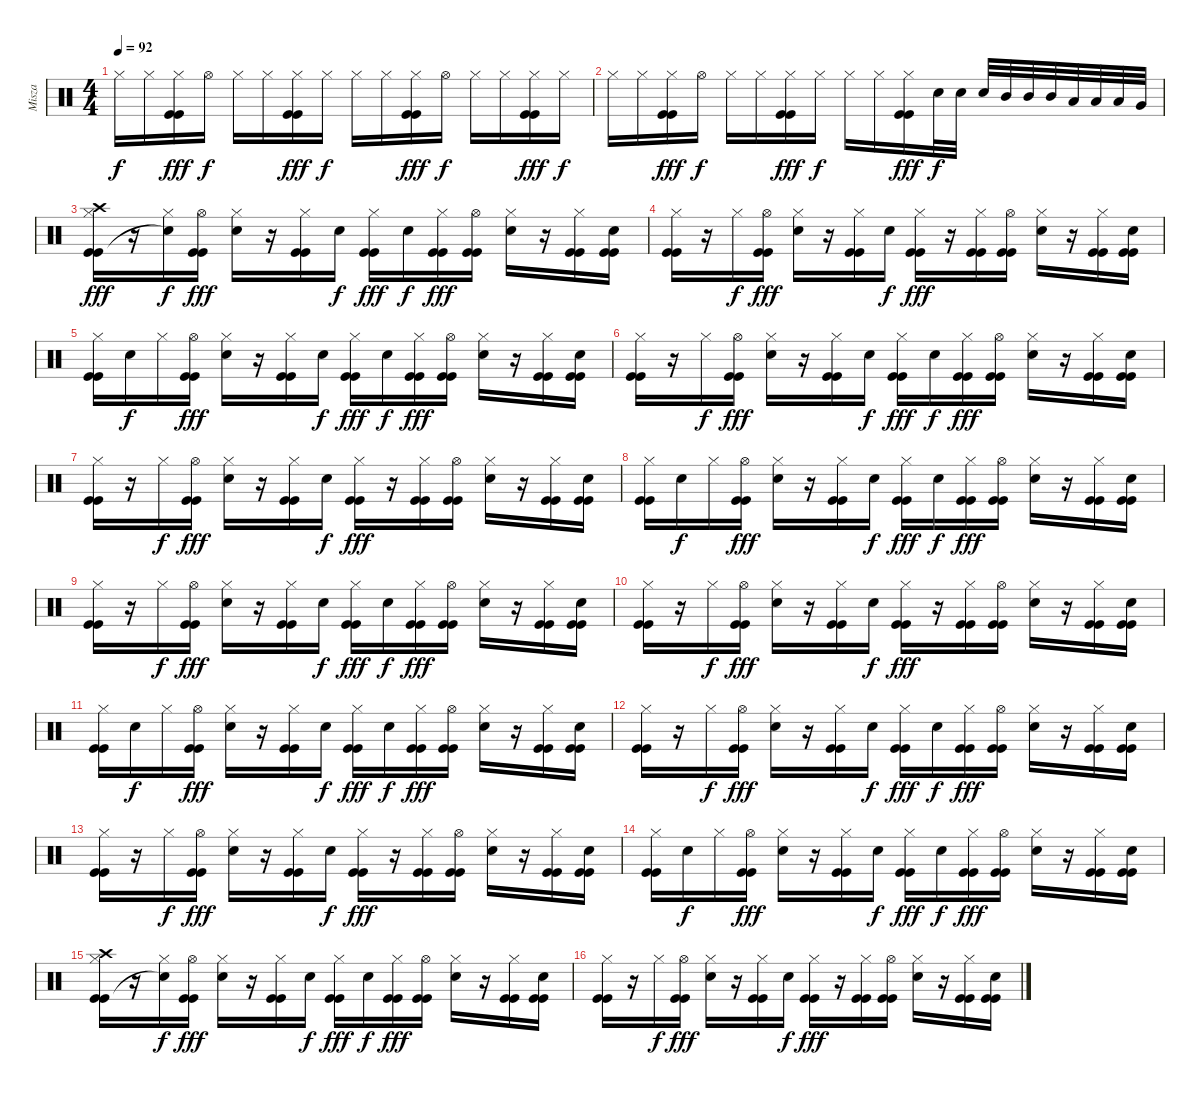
\track ("Misza" "Misza") {instrument percussion}
\staff {score}
\articulation defaults
\ts (4 4)
\tempo 92
\clef neutral
\ks c "Hi-Hat (closed)".16{dy f} "Hi-Hat (closed)".16
("Hi-Hat (closed)" "Kick (hit)" "Kick (hit)").16{dy fff} "Hi-Hat (open)".16{dy f} "Hi-Hat (closed)".16 "Hi-Hat (closed)".16 ("Hi-Hat (closed)" "Kick (hit)" "Kick (hit)").16{dy fff} "Hi-Hat (closed)".16{dy f} "Hi-Hat (closed)".16 "Hi-Hat (closed)".16 ("Hi-Hat (closed)" "Kick (hit)" "Kick (hit)").16{dy fff} "Hi-Hat (open)".16{dy f} "Hi-Hat (closed)".16 "Hi-Hat (closed)".16 ("Hi-Hat (closed)" "Kick (hit)" "Kick (hit)").16{dy fff} "Hi-Hat (closed)".16{dy f} |
"Hi-Hat (closed)".16 "Hi-Hat (closed)".16 ("Hi-Hat (closed)" "Kick (hit)" "Kick (hit)").16{dy fff} "Hi-Hat (open)".16{dy f} "Hi-Hat (closed)".16 "Hi-Hat (closed)".16 ("Hi-Hat (closed)" "Kick (hit)" "Kick (hit)").16{dy fff} "Hi-Hat (closed)".16{dy f} "Hi-Hat (closed)".16 "Hi-Hat (closed)".16 ("Hi-Hat (closed)" "Kick (hit)" "Kick (hit)").16{dy fff} "Snare (hit) 2".32{dy f} "Snare (hit) 2".32 "Snare (hit) 2".32 "Mid Tom (hit)".32 "Mid Tom (hit)".32 "Mid Tom (hit)".32 "Low Tom (hit)".32 "Low Tom (hit)".32 "Low Tom (hit)".32 "Very Low Tom (hit)".32 |
("Hi-Hat (closed)" "Kick (hit)" "Kick (hit)" "Crash high (hit)").16{dy fff} r.16 ("Hi-Hat (closed)" "Snare (hit)"{t}).16{dy f} ("Hi-Hat (open)" "Kick (hit)" "Kick (hit)").16{dy fff} ("Hi-Hat (closed)" "Snare (hit) 2").16 r.16 ("Hi-Hat (closed)" "Kick (hit)" "Kick (hit)").16 "Snare (hit) 2".16{dy f} ("Hi-Hat (closed)" "Kick (hit)" "Kick (hit)").16{dy fff} "Snare (hit) 2".16{dy f} ("Hi-Hat (closed)" "Kick (hit)" "Kick (hit)").16{dy fff} ("Hi-Hat (open)" "Kick (hit)" "Kick (hit)").16 ("Hi-Hat (closed)" "Snare (hit) 2").16 r.16 ("Hi-Hat (closed)" "Kick (hit)" "Kick (hit)").16 ("Snare (hit) 2" "Kick (hit)" "Kick (hit)").16 |
("Hi-Hat (closed)" "Kick (hit)" "Kick (hit)").16 r.16 "Hi-Hat (closed)".16{dy f} ("Hi-Hat (open)" "Kick (hit)" "Kick (hit)").16{dy fff} ("Hi-Hat (closed)" "Snare (hit) 2").16 r.16 ("Hi-Hat (closed)" "Kick (hit)" "Kick (hit)").16 "Snare (hit) 2".16{dy f} ("Hi-Hat (closed)" "Kick (hit)" "Kick (hit)").16{dy fff} r.16 ("Hi-Hat (closed)" "Kick (hit)" "Kick (hit)").16 ("Hi-Hat (open)" "Kick (hit)" "Kick (hit)").16 ("Hi-Hat (closed)" "Snare (hit) 2").16 r.16 ("Hi-Hat (closed)" "Kick (hit)" "Kick (hit)").16 ("Snare (hit) 2" "Kick (hit)" "Kick (hit)").16 |
("Hi-Hat (closed)" "Kick (hit)" "Kick (hit)").16 "Snare (hit) 2".16{dy f} "Hi-Hat (closed)".16 ("Hi-Hat (open)" "Kick (hit)" "Kick (hit)").16{dy fff} ("Hi-Hat (closed)" "Snare (hit) 2").16 r.16 ("Hi-Hat (closed)" "Kick (hit)" "Kick (hit)").16 "Snare (hit) 2".16{dy f} ("Hi-Hat (closed)" "Kick (hit)" "Kick (hit)").16{dy fff} "Snare (hit) 2".16{dy f} ("Hi-Hat (closed)" "Kick (hit)" "Kick (hit)").16{dy fff} ("Hi-Hat (open)" "Kick (hit)" "Kick (hit)").16 ("Hi-Hat (closed)" "Snare (hit) 2").16 r.16 ("Hi-Hat (closed)" "Kick (hit)" "Kick (hit)").16 ("Snare (hit) 2" "Kick (hit)" "Kick (hit)").16 |
("Hi-Hat (closed)" "Kick (hit)" "Kick (hit)").16 r.16 "Hi-Hat (closed)".16{dy f} ("Hi-Hat (open)" "Kick (hit)" "Kick (hit)").16{dy fff} ("Hi-Hat (closed)" "Snare (hit) 2").16 r.16 ("Hi-Hat (closed)" "Kick (hit)" "Kick (hit)").16 "Snare (hit) 2".16{dy f} ("Hi-Hat (closed)" "Kick (hit)" "Kick (hit)").16{dy fff} "Snare (hit) 2".16{dy f} ("Hi-Hat (closed)" "Kick (hit)" "Kick (hit)").16{dy fff} ("Hi-Hat (open)" "Kick (hit)" "Kick (hit)").16 ("Hi-Hat (closed)" "Snare (hit) 2").16 r.16 ("Hi-Hat (closed)" "Kick (hit)" "Kick (hit)").16 ("Snare (hit) 2" "Kick (hit)" "Kick (hit)").16 |
("Hi-Hat (closed)" "Kick (hit)" "Kick (hit)").16 r.16 "Hi-Hat (closed)".16{dy f} ("Hi-Hat (open)" "Kick (hit)" "Kick (hit)").16{dy fff} ("Hi-Hat (closed)" "Snare (hit) 2").16 r.16 ("Hi-Hat (closed)" "Kick (hit)" "Kick (hit)").16 "Snare (hit) 2".16{dy f} ("Hi-Hat (closed)" "Kick (hit)" "Kick (hit)").16{dy fff} r.16 ("Hi-Hat (closed)" "Kick (hit)" "Kick (hit)").16 ("Hi-Hat (open)" "Kick (hit)" "Kick (hit)").16 ("Hi-Hat (closed)" "Snare (hit) 2").16 r.16 ("Hi-Hat (closed)" "Kick (hit)" "Kick (hit)").16 ("Snare (hit) 2" "Kick (hit)" "Kick (hit)").16 |
("Hi-Hat (closed)" "Kick (hit)" "Kick (hit)").16 "Snare (hit) 2".16{dy f} "Hi-Hat (closed)".16 ("Hi-Hat (open)" "Kick (hit)" "Kick (hit)").16{dy fff} ("Hi-Hat (closed)" "Snare (hit) 2").16 r.16 ("Hi-Hat (closed)" "Kick (hit)" "Kick (hit)").16 "Snare (hit) 2".16{dy f} ("Hi-Hat (closed)" "Kick (hit)" "Kick (hit)").16{dy fff} "Snare (hit) 2".16{dy f} ("Hi-Hat (closed)" "Kick (hit)" "Kick (hit)").16{dy fff} ("Hi-Hat (open)" "Kick (hit)" "Kick (hit)").16 ("Hi-Hat (closed)" "Snare (hit) 2").16 r.16 ("Hi-Hat (closed)" "Kick (hit)" "Kick (hit)").16 ("Snare (hit) 2" "Kick (hit)" "Kick (hit)").16 |
("Hi-Hat (closed)" "Kick (hit)" "Kick (hit)").16 r.16 "Hi-Hat (closed)".16{dy f} ("Hi-Hat (open)" "Kick (hit)" "Kick (hit)").16{dy fff} ("Hi-Hat (closed)" "Snare (hit) 2").16 r.16 ("Hi-Hat (closed)" "Kick (hit)" "Kick (hit)").16 "Snare (hit) 2".16{dy f} ("Hi-Hat (closed)" "Kick (hit)" "Kick (hit)").16{dy fff} "Snare (hit) 2".16{dy f} ("Hi-Hat (closed)" "Kick (hit)" "Kick (hit)").16{dy fff} ("Hi-Hat (open)" "Kick (hit)" "Kick (hit)").16 ("Hi-Hat (closed)" "Snare (hit) 2").16 r.16 ("Hi-Hat (closed)" "Kick (hit)" "Kick (hit)").16 ("Snare (hit) 2" "Kick (hit)" "Kick (hit)").16 |
("Hi-Hat (closed)" "Kick (hit)" "Kick (hit)").16 r.16 "Hi-Hat (closed)".16{dy f} ("Hi-Hat (open)" "Kick (hit)" "Kick (hit)").16{dy fff} ("Hi-Hat (closed)" "Snare (hit) 2").16 r.16 ("Hi-Hat (closed)" "Kick (hit)" "Kick (hit)").16 "Snare (hit) 2".16{dy f} ("Hi-Hat (closed)" "Kick (hit)" "Kick (hit)").16{dy fff} r.16 ("Hi-Hat (closed)" "Kick (hit)" "Kick (hit)").16 ("Hi-Hat (open)" "Kick (hit)" "Kick (hit)").16 ("Hi-Hat (closed)" "Snare (hit) 2").16 r.16 ("Hi-Hat (closed)" "Kick (hit)" "Kick (hit)").16 ("Snare (hit) 2" "Kick (hit)" "Kick (hit)").16 |
("Hi-Hat (closed)" "Kick (hit)" "Kick (hit)").16 "Snare (hit) 2".16{dy f} "Hi-Hat (closed)".16 ("Hi-Hat (open)" "Kick (hit)" "Kick (hit)").16{dy fff} ("Hi-Hat (closed)" "Snare (hit) 2").16 r.16 ("Hi-Hat (closed)" "Kick (hit)" "Kick (hit)").16 "Snare (hit) 2".16{dy f} ("Hi-Hat (closed)" "Kick (hit)" "Kick (hit)").16{dy fff} "Snare (hit) 2".16{dy f} ("Hi-Hat (closed)" "Kick (hit)" "Kick (hit)").16{dy fff} ("Hi-Hat (open)" "Kick (hit)" "Kick (hit)").16 ("Hi-Hat (closed)" "Snare (hit) 2").16 r.16 ("Hi-Hat (closed)" "Kick (hit)" "Kick (hit)").16 ("Snare (hit) 2" "Kick (hit)" "Kick (hit)").16 |
("Hi-Hat (closed)" "Kick (hit)" "Kick (hit)").16 r.16 "Hi-Hat (closed)".16{dy f} ("Hi-Hat (open)" "Kick (hit)" "Kick (hit)").16{dy fff} ("Hi-Hat (closed)" "Snare (hit) 2").16 r.16 ("Hi-Hat (closed)" "Kick (hit)" "Kick (hit)").16 "Snare (hit) 2".16{dy f} ("Hi-Hat (closed)" "Kick (hit)" "Kick (hit)").16{dy fff} "Snare (hit) 2".16{dy f} ("Hi-Hat (closed)" "Kick (hit)" "Kick (hit)").16{dy fff} ("Hi-Hat (open)" "Kick (hit)" "Kick (hit)").16 ("Hi-Hat (closed)" "Snare (hit) 2").16 r.16 ("Hi-Hat (closed)" "Kick (hit)" "Kick (hit)").16 ("Snare (hit) 2" "Kick (hit)" "Kick (hit)").16 |
("Hi-Hat (closed)" "Kick (hit)" "Kick (hit)").16 r.16 "Hi-Hat (closed)".16{dy f} ("Hi-Hat (open)" "Kick (hit)" "Kick (hit)").16{dy fff} ("Hi-Hat (closed)" "Snare (hit) 2").16 r.16 ("Hi-Hat (closed)" "Kick (hit)" "Kick (hit)").16 "Snare (hit) 2".16{dy f} ("Hi-Hat (closed)" "Kick (hit)" "Kick (hit)").16{dy fff} r.16 ("Hi-Hat (closed)" "Kick (hit)" "Kick (hit)").16 ("Hi-Hat (open)" "Kick (hit)" "Kick (hit)").16 ("Hi-Hat (closed)" "Snare (hit) 2").16 r.16 ("Hi-Hat (closed)" "Kick (hit)" "Kick (hit)").16 ("Snare (hit) 2" "Kick (hit)" "Kick (hit)").16 |
("Hi-Hat (closed)" "Kick (hit)" "Kick (hit)").16 "Snare (hit) 2".16{dy f} "Hi-Hat (closed)".16 ("Hi-Hat (open)" "Kick (hit)" "Kick (hit)").16{dy fff} ("Hi-Hat (closed)" "Snare (hit) 2").16 r.16 ("Hi-Hat (closed)" "Kick (hit)" "Kick (hit)").16 "Snare (hit) 2".16{dy f} ("Hi-Hat (closed)" "Kick (hit)" "Kick (hit)").16{dy fff} "Snare (hit) 2".16{dy f} ("Hi-Hat (closed)" "Kick (hit)" "Kick (hit)").16{dy fff} ("Hi-Hat (open)" "Kick (hit)" "Kick (hit)").16 ("Hi-Hat (closed)" "Snare (hit) 2").16 r.16 ("Hi-Hat (closed)" "Kick (hit)" "Kick (hit)").16 ("Snare (hit) 2" "Kick (hit)" "Kick (hit)").16 |
("Hi-Hat (closed)" "Kick (hit)" "Kick (hit)" "Crash high (hit)").16 r.16 ("Hi-Hat (closed)" "Snare (hit)"{t}).16{dy f} ("Hi-Hat (open)" "Kick (hit)" "Kick (hit)").16{dy fff} ("Hi-Hat (closed)" "Snare (hit) 2").16 r.16 ("Hi-Hat (closed)" "Kick (hit)" "Kick (hit)").16 "Snare (hit) 2".16{dy f} ("Hi-Hat (closed)" "Kick (hit)" "Kick (hit)").16{dy fff} "Snare (hit) 2".16{dy f} ("Hi-Hat (closed)" "Kick (hit)" "Kick (hit)").16{dy fff} ("Hi-Hat (open)" "Kick (hit)" "Kick (hit)").16 ("Hi-Hat (closed)" "Snare (hit) 2").16 r.16 ("Hi-Hat (closed)" "Kick (hit)" "Kick (hit)").16 ("Snare (hit) 2" "Kick (hit)" "Kick (hit)").16 |
("Hi-Hat (closed)" "Kick (hit)" "Kick (hit)").16 r.16 "Hi-Hat (closed)".16{dy f} ("Hi-Hat (open)" "Kick (hit)" "Kick (hit)").16{dy fff} ("Hi-Hat (closed)" "Snare (hit) 2").16 r.16 ("Hi-Hat (closed)" "Kick (hit)" "Kick (hit)").16 "Snare (hit) 2".16{dy f} ("Hi-Hat (closed)" "Kick (hit)" "Kick (hit)").16{dy fff} r.16 ("Hi-Hat (closed)" "Kick (hit)" "Kick (hit)").16 ("Hi-Hat (open)" "Kick (hit)" "Kick (hit)").16 ("Hi-Hat (closed)" "Snare (hit) 2").16 r.16 ("Hi-Hat (closed)" "Kick (hit)" "Kick (hit)").16 ("Snare (hit) 2" "Kick (hit)" "Kick (hit)").16
